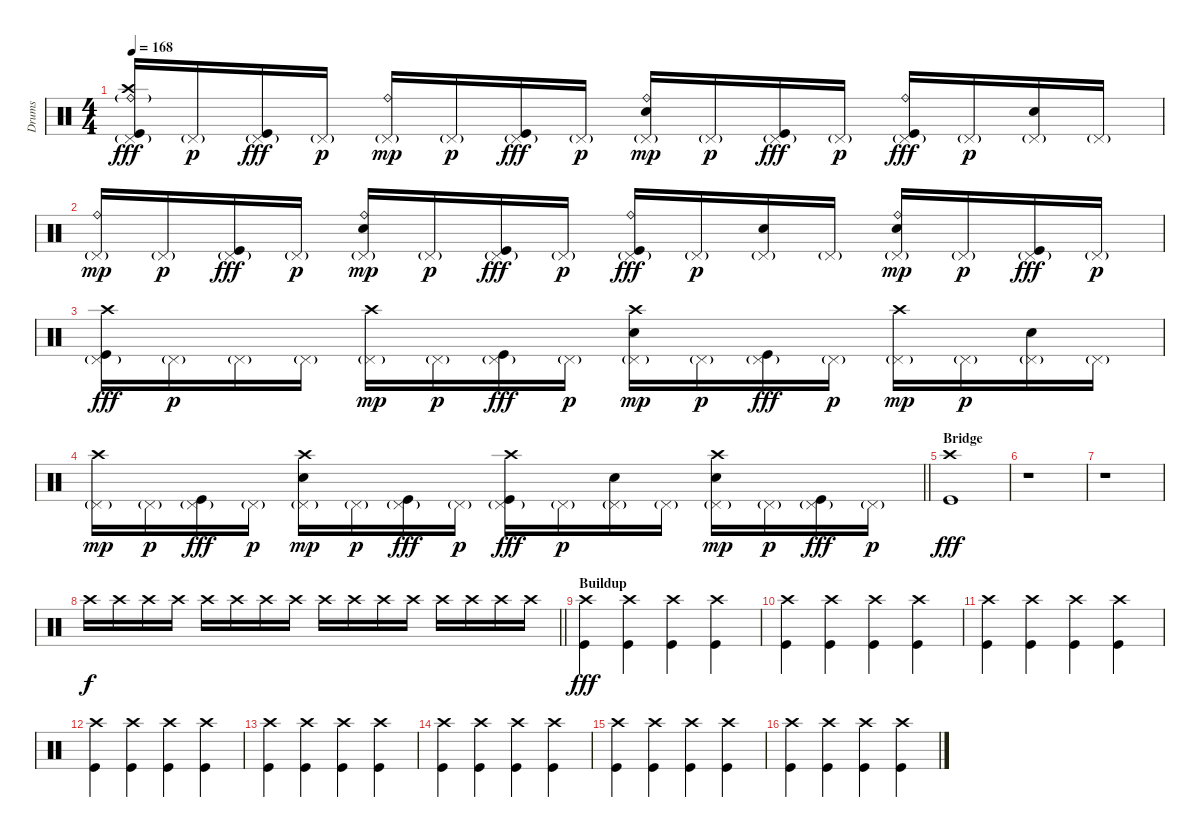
\track ("Drums" "Drums") {instrument percussion}
\staff {score}
\articulation defaults
\ts (4 4)
\tempo 168
\clef neutral
\ks c
("Ride (bell)"{g} "Crash high (hit)" "Pedal Hi-Hat (hit)"{g} "Kick (hit)").16{dy fff} "Pedal Hi-Hat (hit)"{g}.16{dy p} ("Pedal Hi-Hat (hit)"{g} "Kick (hit)").16{dy fff} "Pedal Hi-Hat (hit)"{g}.16{dy p} ("Ride (bell)" "Pedal Hi-Hat (hit)"{g}).16{dy mp} "Pedal Hi-Hat (hit)"{g}.16{dy p} ("Pedal Hi-Hat (hit)"{g} "Kick (hit)").16{dy fff} "Pedal Hi-Hat (hit)"{g}.16{dy p} ("Ride (bell)" "Pedal Hi-Hat (hit)"{g} "Snare (hit) 2").16{dy mp} "Pedal Hi-Hat (hit)"{g}.16{dy p} ("Pedal Hi-Hat (hit)"{g} "Kick (hit)").16{dy fff} "Pedal Hi-Hat (hit)"{g}.16{dy p} ("Ride (bell)" "Pedal Hi-Hat (hit)"{g} "Kick (hit)").16{dy fff} "Pedal Hi-Hat (hit)"{g}.16{dy p} ("Pedal Hi-Hat (hit)"{g} "Snare (hit) 2").16 "Pedal Hi-Hat (hit)"{g}.16 |
("Ride (bell)" "Pedal Hi-Hat (hit)"{g}).16{dy mp} "Pedal Hi-Hat (hit)"{g}.16{dy p} ("Pedal Hi-Hat (hit)"{g} "Kick (hit)").16{dy fff} "Pedal Hi-Hat (hit)"{g}.16{dy p} ("Ride (bell)" "Pedal Hi-Hat (hit)"{g} "Snare (hit) 2").16{dy mp} "Pedal Hi-Hat (hit)"{g}.16{dy p} ("Pedal Hi-Hat (hit)"{g} "Kick (hit)").16{dy fff} "Pedal Hi-Hat (hit)"{g}.16{dy p} ("Ride (bell)" "Pedal Hi-Hat (hit)"{g} "Kick (hit)").16{dy fff} "Pedal Hi-Hat (hit)"{g}.16{dy p} ("Pedal Hi-Hat (hit)"{g} "Snare (hit) 2").16 "Pedal Hi-Hat (hit)"{g}.16 ("Ride (bell)" "Pedal Hi-Hat (hit)"{g} "Snare (hit) 2").16{dy mp} "Pedal Hi-Hat (hit)"{g}.16{dy p} ("Pedal Hi-Hat (hit)"{g} "Kick (hit)").16{dy fff} "Pedal Hi-Hat (hit)"{g}.16{dy p} |
("Crash high (hit)" "Pedal Hi-Hat (hit)"{g} "Kick (hit)").16{dy fff} "Pedal Hi-Hat (hit)"{g}.16{dy p} "Pedal Hi-Hat (hit)"{g}.16 "Pedal Hi-Hat (hit)"{g}.16 ("Crash high (hit)" "Pedal Hi-Hat (hit)"{g}).16{dy mp} "Pedal Hi-Hat (hit)"{g}.16{dy p} ("Pedal Hi-Hat (hit)"{g} "Kick (hit)").16{dy fff} "Pedal Hi-Hat (hit)"{g}.16{dy p} ("Crash high (hit)" "Pedal Hi-Hat (hit)"{g} "Snare (hit) 2").16{dy mp} "Pedal Hi-Hat (hit)"{g}.16{dy p} ("Pedal Hi-Hat (hit)"{g} "Kick (hit)").16{dy fff} "Pedal Hi-Hat (hit)"{g}.16{dy p} ("Crash high (hit)" "Pedal Hi-Hat (hit)"{g}).16{dy mp} "Pedal Hi-Hat (hit)"{g}.16{dy p} ("Pedal Hi-Hat (hit)"{g} "Snare (hit) 2").16 "Pedal Hi-Hat (hit)"{g}.16 |
\barLineRight lightlight
("Crash high (hit)" "Pedal Hi-Hat (hit)"{g}).16{dy mp} "Pedal Hi-Hat (hit)"{g}.16{dy p} ("Pedal Hi-Hat (hit)"{g} "Kick (hit)").16{dy fff} "Pedal Hi-Hat (hit)"{g}.16{dy p} ("Crash high (hit)" "Pedal Hi-Hat (hit)"{g} "Snare (hit) 2").16{dy mp} "Pedal Hi-Hat (hit)"{g}.16{dy p} ("Pedal Hi-Hat (hit)"{g} "Kick (hit)").16{dy fff} "Pedal Hi-Hat (hit)"{g}.16{dy p} ("Crash high (hit)" "Pedal Hi-Hat (hit)"{g} "Kick (hit)").16{dy fff} "Pedal Hi-Hat (hit)"{g}.16{dy p} ("Pedal Hi-Hat (hit)"{g} "Snare (hit) 2").16 "Pedal Hi-Hat (hit)"{g}.16 ("Crash high (hit)" "Pedal Hi-Hat (hit)"{g} "Snare (hit) 2").16{dy mp} "Pedal Hi-Hat (hit)"{g}.16{dy p} ("Pedal Hi-Hat (hit)"{g} "Kick (hit)").16{dy fff} "Pedal Hi-Hat (hit)"{g}.16{dy p} |
\section ("" "Bridge")
("Crash high (hit)" "Kick (hit)").1{dy fff} |
r.1 |
r.1{volume 0} |
\barLineRight lightlight "Crash high (hit)".16{dy f volume 10} "Crash high (hit)".16 "Crash high (hit)".16 "Crash high (hit)".16 "Crash high (hit)".16 "Crash high (hit)".16 "Crash high (hit)".16 "Crash high (hit)".16 "Crash high (hit)".16 "Crash high (hit)".16 "Crash high (hit)".16 "Crash high (hit)".16 "Crash high (hit)".16 "Crash high (hit)".16 "Crash high (hit)".16 "Crash high (hit)".16
|
\section ("" "Buildup")
("Crash high (hit)" "Kick (hit)").4{dy fff volume 16} ("Crash high (hit)" "Kick (hit)").4 ("Crash high (hit)" "Kick (hit)").4 ("Crash high (hit)" "Kick (hit)").4 |
("Crash high (hit)" "Kick (hit)").4 ("Crash high (hit)" "Kick (hit)").4 ("Crash high (hit)" "Kick (hit)").4 ("Crash high (hit)" "Kick (hit)").4 |
("Crash high (hit)" "Kick (hit)").4 ("Crash high (hit)" "Kick (hit)").4 ("Crash high (hit)" "Kick (hit)").4 ("Crash high (hit)" "Kick (hit)").4 |
("Crash high (hit)" "Kick (hit)").4 ("Crash high (hit)" "Kick (hit)").4 ("Crash high (hit)" "Kick (hit)").4 ("Crash high (hit)" "Kick (hit)").4 |
("Crash high (hit)" "Kick (hit)").4 ("Crash high (hit)" "Kick (hit)").4 ("Crash high (hit)" "Kick (hit)").4 ("Crash high (hit)" "Kick (hit)").4 |
("Crash high (hit)" "Kick (hit)").4 ("Crash high (hit)" "Kick (hit)").4 ("Crash high (hit)" "Kick (hit)").4 ("Crash high (hit)" "Kick (hit)").4 |
("Crash high (hit)" "Kick (hit)").4 ("Crash high (hit)" "Kick (hit)").4 ("Crash high (hit)" "Kick (hit)").4 ("Crash high (hit)" "Kick (hit)").4 |
("Crash high (hit)" "Kick (hit)").4 ("Crash high (hit)" "Kick (hit)").4 ("Crash high (hit)" "Kick (hit)").4 ("Crash high (hit)" "Kick (hit)").4
